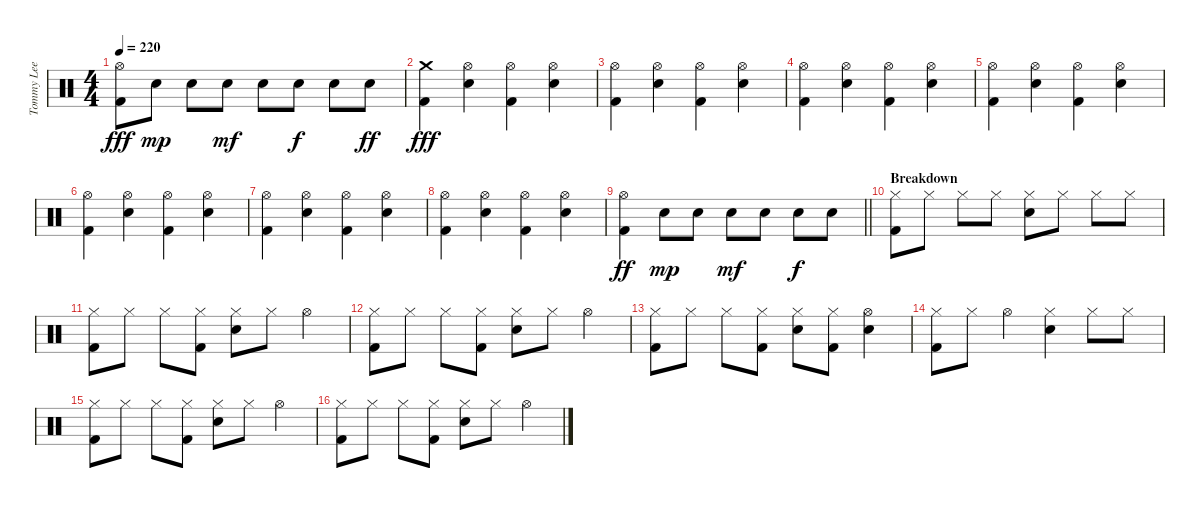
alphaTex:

\track ("Tommy Lee - Drums" "Tommy Lee ") {instrument percussion}
\staff {score}
\articulation defaults
\ts (4 4)
\tempo 220
\clef neutral
\ks c
("Hi-Hat (open)" "Kick (hit) 2").8{dy fff} "Electric Snare (hit)".8{dy mp} "Electric Snare (hit)".8 "Electric Snare (hit)".8{dy mf} "Electric Snare (hit)".8 "Electric Snare (hit)".8{dy f} "Electric Snare (hit)".8 "Electric Snare (hit)".8{dy ff} |
("Crash medium (hit)" "Kick (hit) 2").4{dy fff} ("Hi-Hat (open)" "Electric Snare (hit)").4 ("Hi-Hat (open)" "Kick (hit) 2").4 ("Hi-Hat (open)" "Electric Snare (hit)").4 |
("Hi-Hat (open)" "Kick (hit) 2").4 ("Hi-Hat (open)" "Electric Snare (hit)").4 ("Hi-Hat (open)" "Kick (hit) 2").4 ("Hi-Hat (open)" "Electric Snare (hit)").4 |
("Hi-Hat (open)" "Kick (hit) 2").4 ("Hi-Hat (open)" "Electric Snare (hit)").4 ("Hi-Hat (open)" "Kick (hit) 2").4 ("Hi-Hat (open)" "Electric Snare (hit)").4 |
("Hi-Hat (open)" "Kick (hit) 2").4 ("Hi-Hat (open)" "Electric Snare (hit)").4 ("Hi-Hat (open)" "Kick (hit) 2").4 ("Hi-Hat (open)" "Electric Snare (hit)").4 |
("Hi-Hat (open)" "Kick (hit) 2").4 ("Hi-Hat (open)" "Electric Snare (hit)").4 ("Hi-Hat (open)" "Kick (hit) 2").4 ("Hi-Hat (open)" "Electric Snare (hit)").4 |
("Hi-Hat (open)" "Kick (hit) 2").4 ("Hi-Hat (open)" "Electric Snare (hit)").4 ("Hi-Hat (open)" "Kick (hit) 2").4 ("Hi-Hat (open)" "Electric Snare (hit)").4 |
("Hi-Hat (open)" "Kick (hit) 2").4 ("Hi-Hat (open)" "Electric Snare (hit)").4 ("Hi-Hat (open)" "Kick (hit) 2").4 ("Hi-Hat (open)" "Electric Snare (hit)").4 |
\barLineRight lightlight
("Hi-Hat (open)" "Kick (hit) 2").4{dy ff} "Electric Snare (hit)".8{dy mp} "Electric Snare (hit)".8 "Electric Snare (hit)".8{dy mf} "Electric Snare (hit)".8 "Electric Snare (hit)".8{dy f} "Electric Snare (hit)".8 |
\section ("" "Breakdown")
("Hi-Hat (closed)" "Kick (hit) 2").8 "Hi-Hat (closed)".8 "Hi-Hat (closed)".8 "Hi-Hat (closed)".8 ("Hi-Hat (closed)" "Electric Snare (hit)").8 "Hi-Hat (closed)".8 "Hi-Hat (closed)".8 "Hi-Hat (closed)".8 |
("Hi-Hat (closed)" "Kick (hit) 2").8 "Hi-Hat (closed)".8 "Hi-Hat (closed)".8 ("Hi-Hat (closed)" "Kick (hit) 2").8 ("Hi-Hat (closed)" "Electric Snare (hit)").8 "Hi-Hat (closed)".8 "Hi-Hat (open)".4 |
("Hi-Hat (closed)" "Kick (hit) 2").8 "Hi-Hat (closed)".8 "Hi-Hat (closed)".8 ("Hi-Hat (closed)" "Kick (hit) 2").8 ("Hi-Hat (closed)" "Electric Snare (hit)").8 "Hi-Hat (closed)".8 "Hi-Hat (open)".4 |
("Hi-Hat (closed)" "Kick (hit) 2").8 "Hi-Hat (closed)".8 "Hi-Hat (closed)".8 ("Hi-Hat (closed)" "Kick (hit) 2").8 ("Hi-Hat (closed)" "Electric Snare (hit)").8 ("Hi-Hat (closed)" "Kick (hit) 2").8 ("Hi-Hat (open)" "Electric Snare (hit)").4 |
("Hi-Hat (closed)" "Kick (hit) 2").8 "Hi-Hat (closed)".8 "Hi-Hat (open)".4 ("Hi-Hat (closed)" "Electric Snare (hit)").4 "Hi-Hat (closed)".8 "Hi-Hat (closed)".8 |
("Hi-Hat (closed)" "Kick (hit) 2").8 "Hi-Hat (closed)".8 "Hi-Hat (closed)".8 ("Hi-Hat (closed)" "Kick (hit) 2").8 ("Hi-Hat (closed)" "Electric Snare (hit)").8 "Hi-Hat (closed)".8 "Hi-Hat (open)".4 |
("Hi-Hat (closed)" "Kick (hit) 2").8 "Hi-Hat (closed)".8 "Hi-Hat (closed)".8 ("Hi-Hat (closed)" "Kick (hit) 2").8 ("Hi-Hat (closed)" "Electric Snare (hit)").8 "Hi-Hat (closed)".8 "Hi-Hat (open)".4
